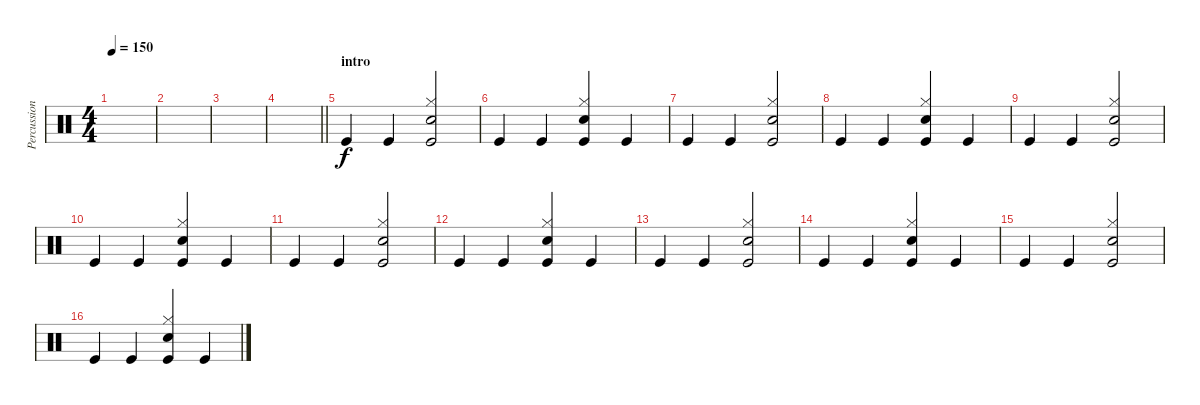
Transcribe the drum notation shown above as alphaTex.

\track ("Percussion" "Percussion") {instrument percussion}
\staff {score}
\articulation defaults
\ts (4 4)
\tempo 150
\clef neutral
\ks c
|
|
|
\barLineRight lightlight
|
\section ("" "intro")
"Kick (hit)".4 "Kick (hit)".4 ("Hi-Hat (closed)" "Electric Snare (hit)" "Kick (hit)").2 |
"Kick (hit)".4 "Kick (hit)".4 ("Hi-Hat (closed)" "Electric Snare (hit)" "Kick (hit)").4 "Kick (hit)".4 |
"Kick (hit)".4 "Kick (hit)".4 ("Hi-Hat (closed)" "Electric Snare (hit)" "Kick (hit)").2 |
"Kick (hit)".4 "Kick (hit)".4 ("Hi-Hat (closed)" "Electric Snare (hit)" "Kick (hit)").4 "Kick (hit)".4 |
"Kick (hit)".4 "Kick (hit)".4 ("Hi-Hat (closed)" "Electric Snare (hit)" "Kick (hit)").2 |
"Kick (hit)".4 "Kick (hit)".4 ("Hi-Hat (closed)" "Electric Snare (hit)" "Kick (hit)").4 "Kick (hit)".4 |
"Kick (hit)".4 "Kick (hit)".4 ("Hi-Hat (closed)" "Electric Snare (hit)" "Kick (hit)").2 |
"Kick (hit)".4 "Kick (hit)".4 ("Hi-Hat (closed)" "Electric Snare (hit)" "Kick (hit)").4 "Kick (hit)".4 |
"Kick (hit)".4 "Kick (hit)".4 ("Hi-Hat (closed)" "Electric Snare (hit)" "Kick (hit)").2 |
"Kick (hit)".4 "Kick (hit)".4 ("Hi-Hat (closed)" "Electric Snare (hit)" "Kick (hit)").4 "Kick (hit)".4 |
"Kick (hit)".4 "Kick (hit)".4 ("Hi-Hat (closed)" "Electric Snare (hit)" "Kick (hit)").2 |
"Kick (hit)".4 "Kick (hit)".4 ("Hi-Hat (closed)" "Electric Snare (hit)" "Kick (hit)").4 "Kick (hit)".4
